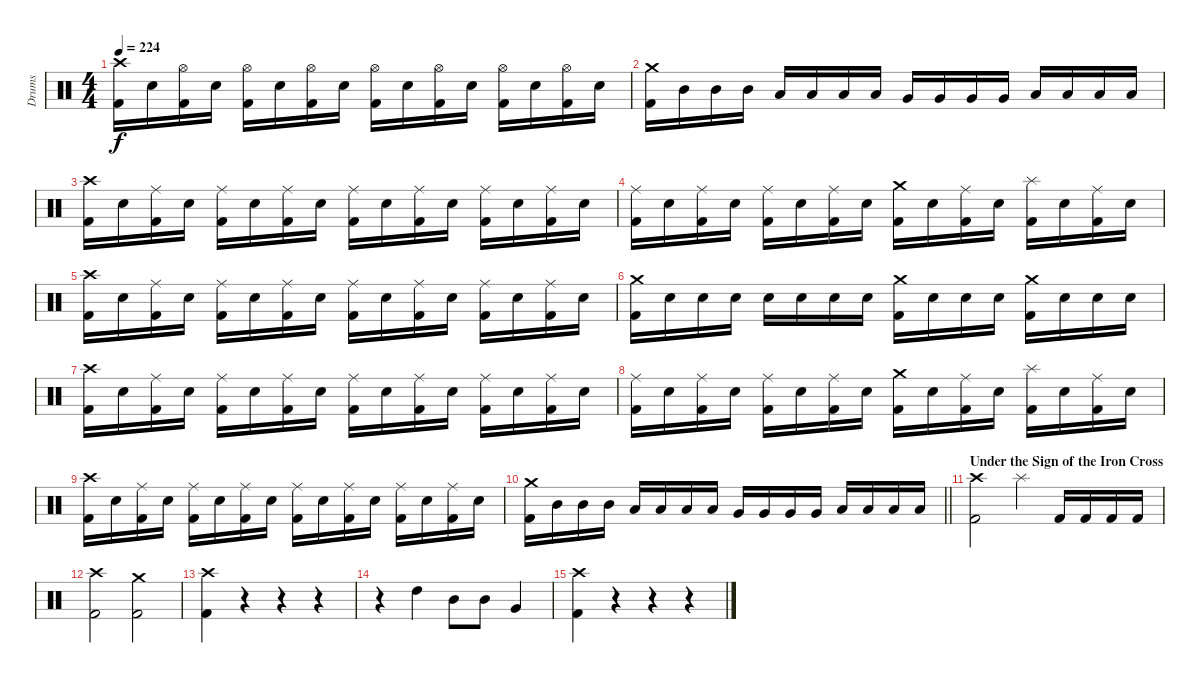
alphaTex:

\track ("Drums" "Drums") {instrument percussion}
\staff {score}
\articulation defaults
\ts (4 4)
\tempo 224
\clef neutral
\ks c
("Crash high (hit)" "Kick (hit) 2").16{dy f} "Electric Snare (hit)".16 ("Hi-Hat (open)" "Kick (hit) 2").16 "Electric Snare (hit)".16 ("Hi-Hat (open)" "Kick (hit) 2").16 "Electric Snare (hit)".16 ("Hi-Hat (open)" "Kick (hit) 2").16 "Electric Snare (hit)".16 ("Hi-Hat (open)" "Kick (hit) 2").16 "Electric Snare (hit)".16 ("Hi-Hat (open)" "Kick (hit) 2").16 "Electric Snare (hit)".16 ("Hi-Hat (open)" "Kick (hit) 2").16 "Electric Snare (hit)".16 ("Hi-Hat (open)" "Kick (hit) 2").16 "Electric Snare (hit)".16 |
("Crash medium (hit)" "Kick (hit) 2").16 "Mid Tom (hit)".16 "Mid Tom (hit)".16 "Mid Tom (hit)".16 "Low Tom (hit)".16 "Low Tom (hit)".16 "Low Tom (hit)".16 "Low Tom (hit)".16 "Very Low Tom (hit)".16 "Very Low Tom (hit)".16 "Very Low Tom (hit)".16 "Very Low Tom (hit)".16 "Low Floor Tom (hit)".16 "Low Floor Tom (hit)".16 "Low Floor Tom (hit)".16 "Low Floor Tom (hit)".16 |
("Crash high (hit)" "Kick (hit) 2").16 "Electric Snare (hit)".16 ("Ride (middle)" "Kick (hit) 2").16 "Electric Snare (hit)".16 ("Ride (middle)" "Kick (hit) 2").16 "Electric Snare (hit)".16 ("Ride (middle)" "Kick (hit) 2").16 "Electric Snare (hit)".16 ("Ride (middle)" "Kick (hit) 2").16 "Electric Snare (hit)".16 ("Ride (middle)" "Kick (hit) 2").16 "Electric Snare (hit)".16 ("Ride (middle)" "Kick (hit) 2").16 "Electric Snare (hit)".16 ("Ride (middle)" "Kick (hit) 2").16 "Electric Snare (hit)".16 |
("Ride (middle)" "Kick (hit) 2").16 "Electric Snare (hit)".16 ("Ride (middle)" "Kick (hit) 2").16 "Electric Snare (hit)".16 ("Ride (middle)" "Kick (hit) 2").16 "Electric Snare (hit)".16 ("Ride (middle)" "Kick (hit) 2").16 "Electric Snare (hit)".16 ("Crash medium (hit)" "Kick (hit) 2").16 "Electric Snare (hit)".16 ("Ride (middle)" "Kick (hit) 2").16 "Electric Snare (hit)".16 ("Splash (hit)" "Kick (hit) 2").16 "Electric Snare (hit)".16 ("Ride (middle)" "Kick (hit) 2").16 "Electric Snare (hit)".16 |
("Crash high (hit)" "Kick (hit) 2").16 "Electric Snare (hit)".16 ("Ride (middle)" "Kick (hit) 2").16 "Electric Snare (hit)".16 ("Ride (middle)" "Kick (hit) 2").16 "Electric Snare (hit)".16 ("Ride (middle)" "Kick (hit) 2").16 "Electric Snare (hit)".16 ("Ride (middle)" "Kick (hit) 2").16 "Electric Snare (hit)".16 ("Ride (middle)" "Kick (hit) 2").16 "Electric Snare (hit)".16 ("Ride (middle)" "Kick (hit) 2").16 "Electric Snare (hit)".16 ("Ride (middle)" "Kick (hit) 2").16 "Electric Snare (hit)".16 |
("Crash medium (hit)" "Kick (hit) 2").16 "Electric Snare (hit)".16 "Electric Snare (hit)".16 "Electric Snare (hit)".16 "Electric Snare (hit)".16 "Electric Snare (hit)".16 "Electric Snare (hit)".16 "Electric Snare (hit)".16 ("Crash medium (hit)" "Kick (hit) 2").16 "Electric Snare (hit)".16 "Electric Snare (hit)".16 "Electric Snare (hit)".16 ("Crash medium (hit)" "Kick (hit) 2").16 "Electric Snare (hit)".16 "Electric Snare (hit)".16 "Electric Snare (hit)".16 |
("Crash high (hit)" "Kick (hit) 2").16 "Electric Snare (hit)".16 ("Ride (middle)" "Kick (hit) 2").16 "Electric Snare (hit)".16 ("Ride (middle)" "Kick (hit) 2").16 "Electric Snare (hit)".16 ("Ride (middle)" "Kick (hit) 2").16 "Electric Snare (hit)".16 ("Ride (middle)" "Kick (hit) 2").16 "Electric Snare (hit)".16 ("Ride (middle)" "Kick (hit) 2").16 "Electric Snare (hit)".16 ("Ride (middle)" "Kick (hit) 2").16 "Electric Snare (hit)".16 ("Ride (middle)" "Kick (hit) 2").16 "Electric Snare (hit)".16 |
("Ride (middle)" "Kick (hit) 2").16 "Electric Snare (hit)".16 ("Ride (middle)" "Kick (hit) 2").16 "Electric Snare (hit)".16 ("Ride (middle)" "Kick (hit) 2").16 "Electric Snare (hit)".16 ("Ride (middle)" "Kick (hit) 2").16 "Electric Snare (hit)".16 ("Crash medium (hit)" "Kick (hit) 2").16 "Electric Snare (hit)".16 ("Ride (middle)" "Kick (hit) 2").16 "Electric Snare (hit)".16 ("Splash (hit)" "Kick (hit) 2").16 "Electric Snare (hit)".16 ("Ride (middle)" "Kick (hit) 2").16 "Electric Snare (hit)".16 |
("Crash high (hit)" "Kick (hit) 2").16 "Electric Snare (hit)".16 ("Ride (middle)" "Kick (hit) 2").16 "Electric Snare (hit)".16 ("Ride (middle)" "Kick (hit) 2").16 "Electric Snare (hit)".16 ("Ride (middle)" "Kick (hit) 2").16 "Electric Snare (hit)".16 ("Ride (middle)" "Kick (hit) 2").16 "Electric Snare (hit)".16 ("Ride (middle)" "Kick (hit) 2").16 "Electric Snare (hit)".16 ("Ride (middle)" "Kick (hit) 2").16 "Electric Snare (hit)".16 ("Ride (middle)" "Kick (hit) 2").16 "Electric Snare (hit)".16 |
\barLineRight lightlight
("Crash medium (hit)" "Kick (hit) 2").16 "Mid Tom (hit)".16 "Mid Tom (hit)".16 "Mid Tom (hit)".16 "Low Tom (hit)".16 "Low Tom (hit)".16 "Low Tom (hit)".16 "Low Tom (hit)".16 "Very Low Tom (hit)".16 "Very Low Tom (hit)".16 "Very Low Tom (hit)".16 "Very Low Tom (hit)".16 "Low Floor Tom (hit)".16 "Low Floor Tom (hit)".16 "Low Floor Tom (hit)".16 "Low Floor Tom (hit)".16 |
\section ("" "Under the Sign of the Iron Cross")
("Crash high (hit)" "Kick (hit) 2").2 "Splash (hit)".4 "Kick (hit) 2".16 "Kick (hit) 2".16 "Kick (hit) 2".16 "Kick (hit) 2".16 |
("Crash high (hit)" "Kick (hit) 2").2 ("Crash medium (hit)" "Kick (hit) 2").2 |
("Crash high (hit)" "Kick (hit) 2").4 r.4 r.4 r.4 |
r.4 "High Tom (hit)".4 "Mid Tom (hit)".8 "Mid Tom (hit)".8 "Very Low Tom (hit)".4 |
("Crash high (hit)" "Kick (hit) 2").4 r.4 r.4 r.4
